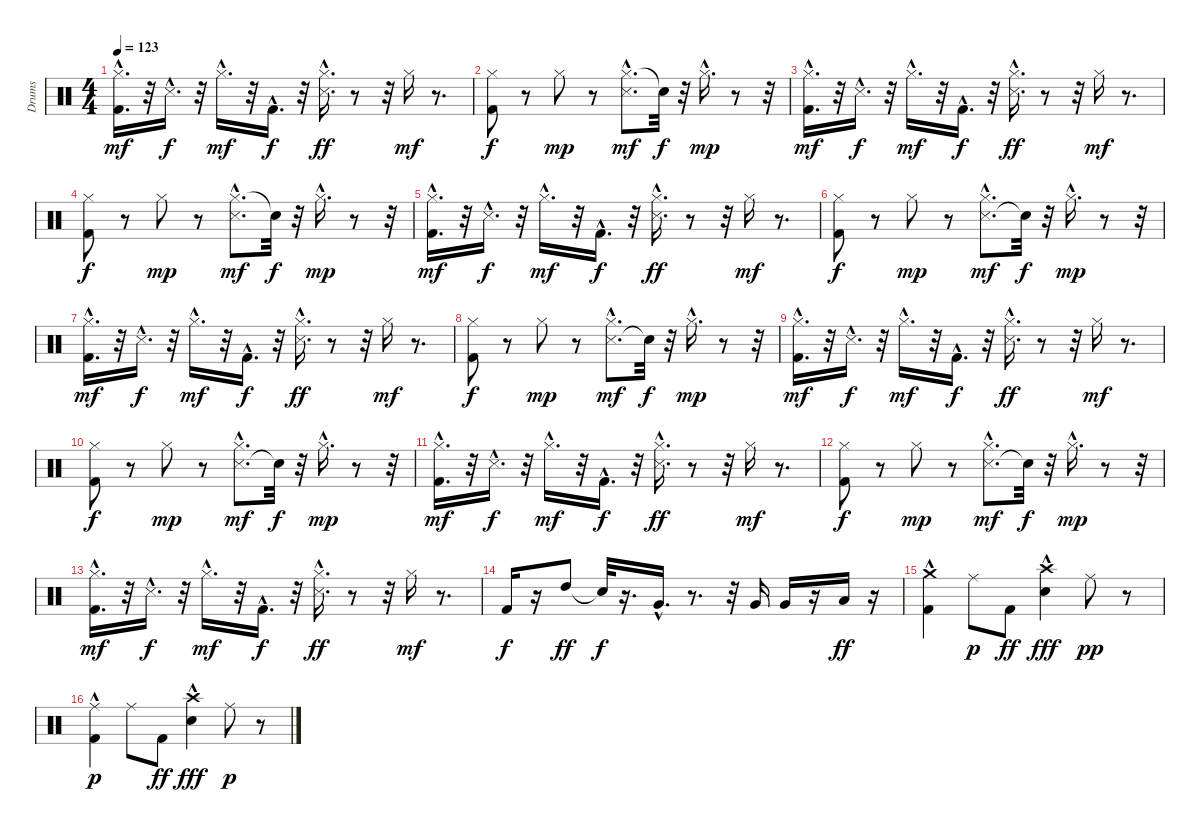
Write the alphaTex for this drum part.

\track ("Drums" "Drums") {instrument percussion}
\staff {score}
\articulation defaults
\ts (4 4)
\tempo 123
\clef neutral
\ks c
("Kick (hit) 2" "Hi-Hat (closed)"{hac}).16{d dy mf} r.32 "Snare (side stick) 3"{hac}.16{d dy f} r.32 "Hi-Hat (closed)"{hac}.16{d dy mf} r.32 "Kick (hit) 2"{hac}.16{d dy f} r.32 ("Snare (side stick) 3" "Hi-Hat (closed)"{hac}).16{d dy ff} r.8 r.32 "Hi-Hat (closed)".16{dy mf} r.8{d} |
("Hi-Hat (closed)" "Kick (hit) 2").8{dy f} r.8 "Hi-Hat (closed)".8{dy mp} r.8 ("Hi-Hat (closed)"{hac} "Snare (side stick) 3"{hac}).8{d dy mf} "Snare (hit)"{t}.32{dy f} r.32 "Hi-Hat (closed)"{hac}.16{d dy mp} r.8 r.32 |
("Hi-Hat (closed)"{hac} "Kick (hit) 2").16{d dy mf} r.32 "Snare (side stick) 3"{hac}.16{d dy f} r.32 "Hi-Hat (closed)"{hac}.16{d dy mf} r.32 "Kick (hit) 2"{hac}.16{d dy f} r.32 ("Hi-Hat (closed)"{hac} "Snare (side stick) 3").16{d dy ff} r.8 r.32 "Hi-Hat (closed)".16{dy mf} r.8{d} |
("Hi-Hat (closed)" "Kick (hit) 2").8{dy f} r.8 "Hi-Hat (closed)".8{dy mp} r.8 ("Hi-Hat (closed)"{hac} "Snare (side stick) 3"{hac}).8{d dy mf} "Snare (hit)"{t}.32{dy f} r.32 "Hi-Hat (closed)"{hac}.16{d dy mp} r.8 r.32 |
("Hi-Hat (closed)"{hac} "Kick (hit) 2").16{d dy mf} r.32 "Snare (side stick) 3"{hac}.16{d dy f} r.32 "Hi-Hat (closed)"{hac}.16{d dy mf} r.32 "Kick (hit) 2"{hac}.16{d dy f} r.32 ("Hi-Hat (closed)"{hac} "Snare (side stick) 3").16{d dy ff} r.8 r.32 "Hi-Hat (closed)".16{dy mf} r.8{d} |
("Kick (hit) 2" "Hi-Hat (closed)").8{dy f} r.8 "Hi-Hat (closed)".8{dy mp} r.8 ("Snare (side stick) 3"{hac} "Hi-Hat (closed)"{hac}).8{d dy mf} "Snare (hit)"{t}.32{dy f} r.32 "Hi-Hat (closed)"{hac}.16{d dy mp} r.8 r.32 |
("Kick (hit) 2" "Hi-Hat (closed)"{hac}).16{d dy mf} r.32 "Snare (side stick) 3"{hac}.16{d dy f} r.32 "Hi-Hat (closed)"{hac}.16{d dy mf} r.32 "Kick (hit) 2"{hac}.16{d dy f} r.32 ("Snare (side stick) 3" "Hi-Hat (closed)"{hac}).16{d dy ff} r.8 r.32 "Hi-Hat (closed)".16{dy mf} r.8{d} |
("Kick (hit) 2" "Hi-Hat (closed)").8{dy f} r.8 "Hi-Hat (closed)".8{dy mp} r.8 ("Snare (side stick) 3"{hac} "Hi-Hat (closed)"{hac}).8{d dy mf} "Snare (hit)"{t}.32{dy f} r.32 "Hi-Hat (closed)"{hac}.16{d dy mp} r.8 r.32 |
("Kick (hit) 2" "Hi-Hat (closed)"{hac}).16{d dy mf} r.32 "Snare (side stick) 3"{hac}.16{d dy f} r.32 "Hi-Hat (closed)"{hac}.16{d dy mf} r.32 "Kick (hit) 2"{hac}.16{d dy f} r.32 ("Snare (side stick) 3" "Hi-Hat (closed)"{hac}).16{d dy ff} r.8 r.32 "Hi-Hat (closed)".16{dy mf} r.8{d} |
("Kick (hit) 2" "Hi-Hat (closed)").8{dy f} r.8 "Hi-Hat (closed)".8{dy mp} r.8 ("Snare (side stick) 3"{hac} "Hi-Hat (closed)"{hac}).8{d dy mf} "Snare (hit)"{t}.32{dy f} r.32 "Hi-Hat (closed)"{hac}.16{d dy mp} r.8 r.32 |
("Kick (hit) 2" "Hi-Hat (closed)"{hac}).16{d dy mf} r.32 "Snare (side stick) 3"{hac}.16{d dy f} r.32 "Hi-Hat (closed)"{hac}.16{d dy mf} r.32 "Kick (hit) 2"{hac}.16{d dy f} r.32 ("Snare (side stick) 3" "Hi-Hat (closed)"{hac}).16{d dy ff} r.8 r.32 "Hi-Hat (closed)".16{dy mf} r.8{d} |
("Kick (hit) 2" "Hi-Hat (closed)").8{dy f} r.8 "Hi-Hat (closed)".8{dy mp} r.8 ("Snare (side stick) 3"{hac} "Hi-Hat (closed)"{hac}).8{d dy mf} "Snare (hit)"{t}.32{dy f} r.32 "Hi-Hat (closed)"{hac}.16{d dy mp} r.8 r.32 |
("Kick (hit) 2" "Hi-Hat (closed)"{hac}).16{d dy mf} r.32 "Snare (side stick) 3"{hac}.16{d dy f} r.32 "Hi-Hat (closed)"{hac}.16{d dy mf} r.32 "Kick (hit) 2"{hac}.16{d dy f} r.32 ("Snare (side stick) 3" "Hi-Hat (closed)"{hac}).16{d dy ff} r.8 r.32 "Hi-Hat (closed)".16{dy mf} r.8{d} |
"Kick (hit) 2".16{dy f} r.16 "High Tom (hit)".8{dy ff} "Snare (hit)"{t}.32{dy f} r.16{d} "Very Low Tom (hit)"{hac}.16{d} r.8{d} r.32 "Very Low Tom (hit)".16 "Very Low Tom (hit)".16 r.16 "Low Floor Tom (hit)".16{dy ff} r.16 |
("Crash medium (hit)" "Kick (hit) 2"{hac}).4 "Ride (middle)".8{dy p} "Kick (hit) 2".8{dy ff} ("Crash high (hit)" "Electric Snare (hit)"{hac}).4{dy fff} "Ride (middle)".8{dy pp} r.8 |
("Ride (middle)" "Kick (hit) 2"{hac}).4{dy p} "Ride (middle)".8 "Kick (hit) 2".8{dy ff} ("Crash high (hit)" "Electric Snare (hit)"{hac}).4{dy fff} "Ride (middle)".8{dy p} r.8
